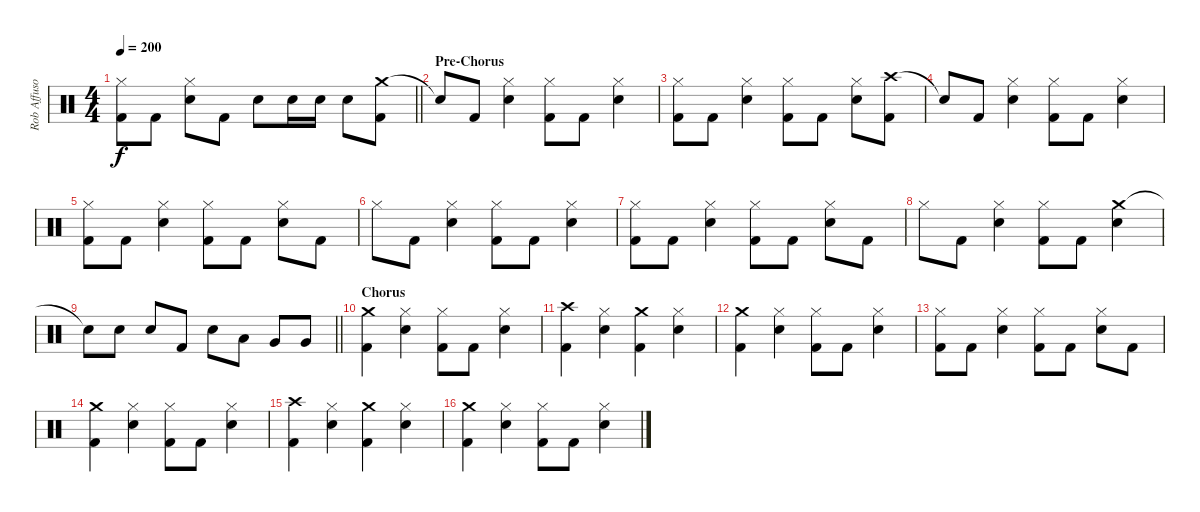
\track ("Rob Affuso - Drums" "Rob Affuso") {instrument percussion}
\staff {score}
\articulation defaults
\ts (4 4)
\tempo 200
\clef neutral
\barLineRight lightlight
\ks c
("Hi-Hat (closed)" "Kick (hit) 2").8{dy f} "Kick (hit) 2".8 ("Hi-Hat (closed)" "Snare (hit) 2").8 "Kick (hit) 2".8 "Snare (hit) 2".8 "Snare (hit) 2".16 "Snare (hit) 2".16 "Snare (hit) 2".8 ("Crash medium (hit)" "Kick (hit) 2").8 |
\section ("" "Pre-Chorus")
"Snare (hit)"{t}.8 "Kick (hit) 2".8 ("Hi-Hat (closed)" "Snare (hit) 2").4 ("Hi-Hat (closed)" "Kick (hit) 2").8 "Kick (hit) 2".8 ("Hi-Hat (closed)" "Snare (hit) 2").4 |
("Hi-Hat (closed)" "Kick (hit) 2").8 "Kick (hit) 2".8 ("Hi-Hat (closed)" "Snare (hit) 2").4 ("Hi-Hat (closed)" "Kick (hit) 2").8 "Kick (hit) 2".8 ("Hi-Hat (closed)" "Snare (hit) 2").8 ("Crash high (hit)" "Kick (hit) 2").8 |
"Snare (hit)"{t}.8 "Kick (hit) 2".8 ("Hi-Hat (closed)" "Snare (hit) 2").4 ("Hi-Hat (closed)" "Kick (hit) 2").8 "Kick (hit) 2".8 ("Hi-Hat (closed)" "Snare (hit) 2").4 |
("Hi-Hat (closed)" "Kick (hit) 2").8 "Kick (hit) 2".8 ("Hi-Hat (closed)" "Snare (hit) 2").4 ("Hi-Hat (closed)" "Kick (hit) 2").8 "Kick (hit) 2".8 ("Hi-Hat (closed)" "Snare (hit) 2").8 "Kick (hit) 2".8 |
"Hi-Hat (closed)".8 "Kick (hit) 2".8 ("Hi-Hat (closed)" "Snare (hit) 2").4 ("Hi-Hat (closed)" "Kick (hit) 2").8 "Kick (hit) 2".8 ("Hi-Hat (closed)" "Snare (hit) 2").4 |
("Hi-Hat (closed)" "Kick (hit) 2").8 "Kick (hit) 2".8 ("Hi-Hat (closed)" "Snare (hit) 2").4 ("Hi-Hat (closed)" "Kick (hit) 2").8 "Kick (hit) 2".8 ("Hi-Hat (closed)" "Snare (hit) 2").8 "Kick (hit) 2".8 |
"Hi-Hat (closed)".8 "Kick (hit) 2".8 ("Hi-Hat (closed)" "Snare (hit) 2").4 ("Hi-Hat (closed)" "Kick (hit) 2").8 "Kick (hit) 2".8 ("Crash medium (hit)" "Snare (hit) 2").4 |
\barLineRight lightlight "Snare (hit)"{t}.8 "Snare (hit) 2".8 "Snare (hit) 2".8 "Kick (hit) 2".8 "Snare (hit) 2".8 "Low Tom (hit)".8 "Very Low Tom (hit)".8 "Very Low Tom (hit)".8
|
\section ("" "Chorus")
("Crash medium (hit)" "Kick (hit) 2").4 ("Hi-Hat (closed)" "Snare (hit) 2").4 ("Hi-Hat (closed)" "Kick (hit) 2").8 "Kick (hit) 2".8 ("Hi-Hat (closed)" "Snare (hit) 2").4 |
("Crash high (hit)" "Kick (hit) 2").4 ("Hi-Hat (closed)" "Snare (hit) 2").4 ("Crash medium (hit)" "Kick (hit) 2").4 ("Hi-Hat (closed)" "Snare (hit) 2").4 |
("Crash medium (hit)" "Kick (hit) 2").4 ("Hi-Hat (closed)" "Snare (hit) 2").4 ("Hi-Hat (closed)" "Kick (hit) 2").8 "Kick (hit) 2".8 ("Hi-Hat (closed)" "Snare (hit) 2").4 |
("Hi-Hat (closed)" "Kick (hit) 2").8 "Kick (hit) 2".8 ("Hi-Hat (closed)" "Snare (hit) 2").4 ("Hi-Hat (closed)" "Kick (hit) 2").8 "Kick (hit) 2".8 ("Hi-Hat (closed)" "Snare (hit) 2").8 "Kick (hit) 2".8 |
("Crash medium (hit)" "Kick (hit) 2").4 ("Hi-Hat (closed)" "Snare (hit) 2").4 ("Hi-Hat (closed)" "Kick (hit) 2").8 "Kick (hit) 2".8 ("Hi-Hat (closed)" "Snare (hit) 2").4 |
("Crash high (hit)" "Kick (hit) 2").4 ("Hi-Hat (closed)" "Snare (hit) 2").4 ("Crash medium (hit)" "Kick (hit) 2").4 ("Hi-Hat (closed)" "Snare (hit) 2").4 |
("Crash medium (hit)" "Kick (hit) 2").4 ("Hi-Hat (closed)" "Snare (hit) 2").4 ("Hi-Hat (closed)" "Kick (hit) 2").8 "Kick (hit) 2".8 ("Hi-Hat (closed)" "Snare (hit) 2").4
